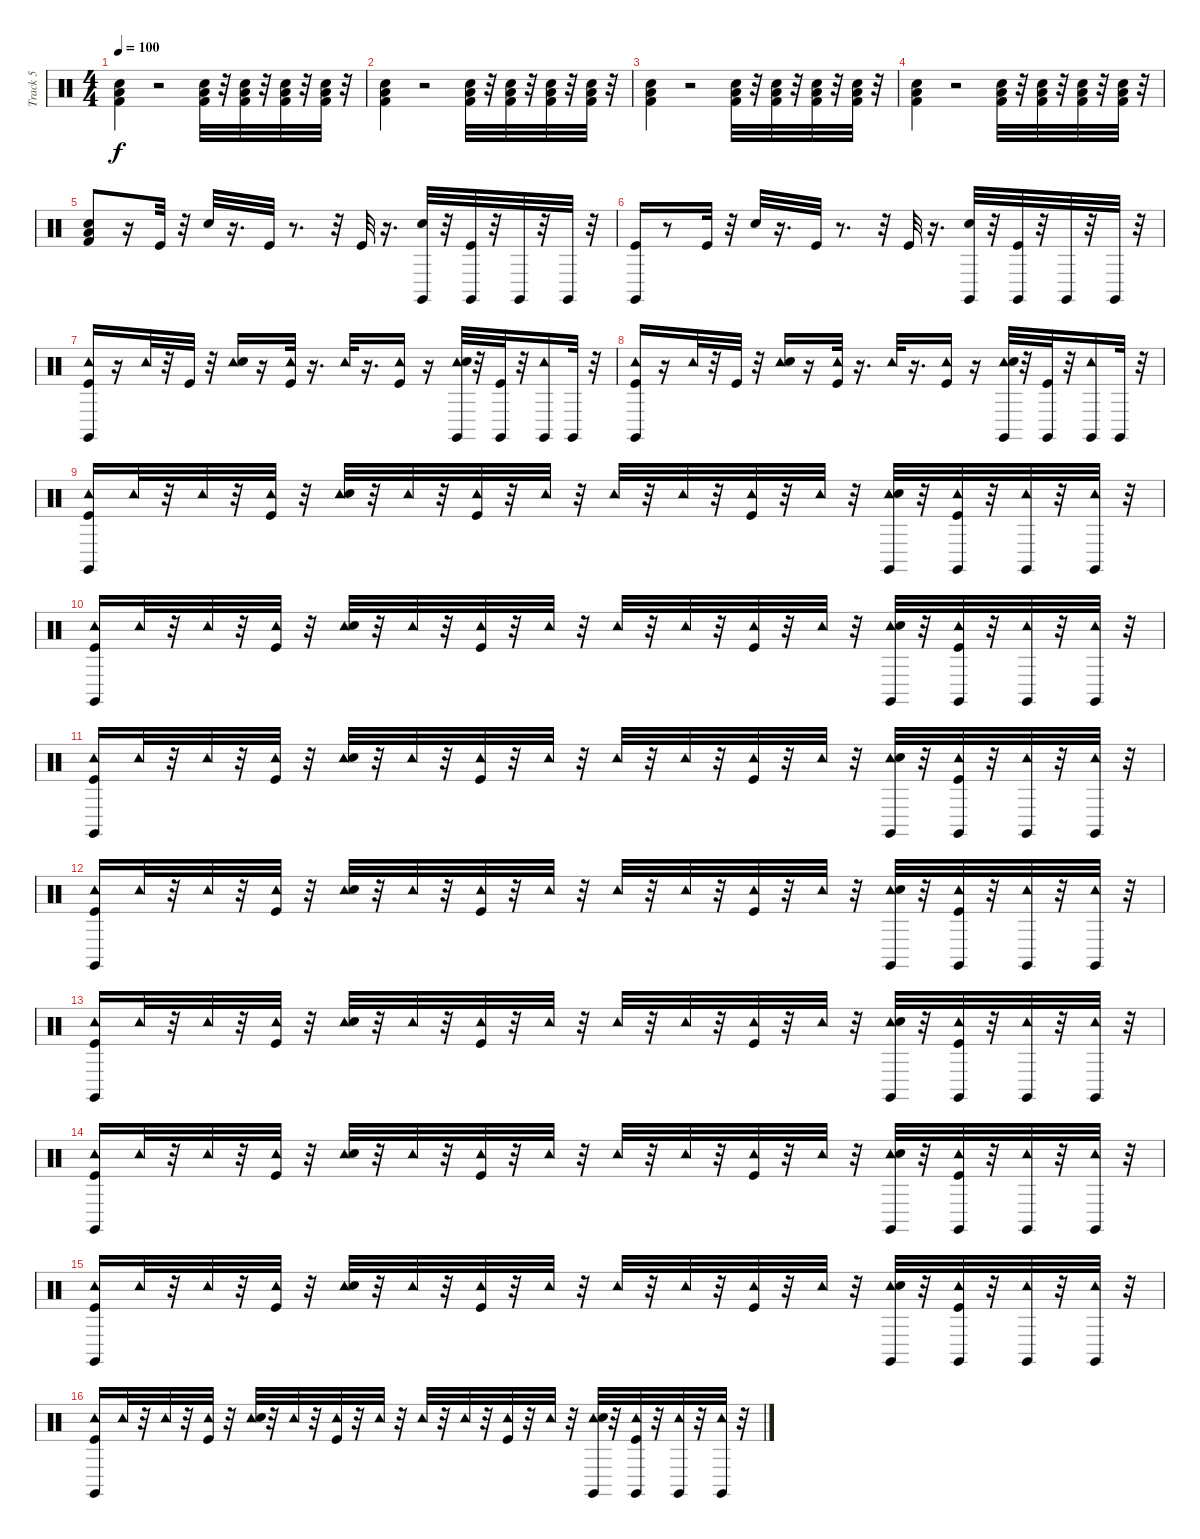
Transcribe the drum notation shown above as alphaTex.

\track ("Track 5" "Track 5") {instrument percussion}
\staff {score}
\articulation defaults
\ts (4 4)
\tempo 100
\clef neutral
\ks c
("Snare (hit) 2" "Kick (hit) 2" "Low Floor Tom (hit)").4{dy f} r.2 ("Snare (hit) 2" "Kick (hit) 2" "Low Floor Tom (hit)").32 r.32 ("Snare (hit) 2" "Kick (hit) 2" "Low Floor Tom (hit)").32 r.32 ("Snare (hit) 2" "Kick (hit) 2" "Low Floor Tom (hit)").32 r.32 ("Snare (hit) 2" "Kick (hit) 2" "Low Floor Tom (hit)").32 r.32 |
("Low Floor Tom (hit)" "Snare (hit) 2" "Kick (hit) 2").4 r.2 ("Snare (hit) 2" "Kick (hit) 2" "Low Floor Tom (hit)").32 r.32 ("Snare (hit) 2" "Kick (hit) 2" "Low Floor Tom (hit)").32 r.32 ("Snare (hit) 2" "Kick (hit) 2" "Low Floor Tom (hit)").32 r.32 ("Snare (hit) 2" "Kick (hit) 2" "Low Floor Tom (hit)").32 r.32 |
("Kick (hit) 2" "Low Floor Tom (hit)" "Snare (hit) 2").4 r.2 ("Snare (hit) 2" "Kick (hit) 2" "Low Floor Tom (hit)").32 r.32 ("Snare (hit) 2" "Kick (hit) 2" "Low Floor Tom (hit)").32 r.32 ("Snare (hit) 2" "Kick (hit) 2" "Low Floor Tom (hit)").32 r.32 ("Snare (hit) 2" "Kick (hit) 2" "Low Floor Tom (hit)").32 r.32 |
("Low Floor Tom (hit)" "Snare (hit) 2" "Kick (hit) 2").4 r.2 ("Low Floor Tom (hit)" "Snare (hit) 2" "Kick (hit) 2").32 r.32 ("Snare (hit) 2" "Kick (hit) 2" "Low Floor Tom (hit)").32 r.32 ("Snare (hit) 2" "Kick (hit) 2" "Low Floor Tom (hit)").32 r.32 ("Snare (hit) 2" "Kick (hit) 2" "Low Floor Tom (hit)").32 r.32 |
("Low Floor Tom (hit)" "Snare (hit) 2" "Kick (hit) 2").8 r.16 "Kick (hit)".32 r.32 "Snare (hit) 2".32 r.16{d} "Kick (hit)".32 r.8{d} r.32 "Kick (hit)".32 r.16{d} ("Claves (hit)" "Snare (hit) 2").32 r.32 ("Kick (hit)" "Claves (hit)").32 r.32 "Claves (hit)".32 r.32 "Claves (hit)".32 r.32 |
("Claves (hit)" "Kick (hit)").16 r.8 "Kick (hit)".32 r.32 "Snare (hit) 2".32 r.16{d} "Kick (hit)".32 r.8{d} r.32 "Kick (hit)".32 r.16{d} ("Claves (hit)" "Snare (hit) 2").32 r.32 ("Claves (hit)" "Kick (hit)").32 r.32 "Claves (hit)".32 r.32 "Claves (hit)".32 r.32 |
("Tambourine (hit)" "Claves (hit)" "Kick (hit)").16 r.16 "Tambourine (hit)".32 r.32 "Kick (hit)".32 r.32 ("Tambourine (hit)" "Snare (hit) 2").16 r.16 ("Tambourine (hit)" "Kick (hit)").32 r.16{d} "Tambourine (hit)".32 r.16{d} ("Tambourine (hit)" "Kick (hit)").16 r.16 ("Tambourine (hit)" "Claves (hit)" "Snare (hit) 2").32 r.32 ("Claves (hit)" "Kick (hit)").32 r.32 ("Tambourine (hit)" "Claves (hit)").16 "Claves (hit)".32 r.32 |
("Tambourine (hit)" "Claves (hit)" "Kick (hit)").16 r.16 "Tambourine (hit)".32 r.32 "Kick (hit)".32 r.32 ("Tambourine (hit)" "Snare (hit) 2").16 r.16 ("Tambourine (hit)" "Kick (hit)").32 r.16{d} "Tambourine (hit)".32 r.16{d} ("Tambourine (hit)" "Kick (hit)").16 r.16 ("Tambourine (hit)" "Claves (hit)" "Snare (hit) 2").32 r.32 ("Claves (hit)" "Kick (hit)").32 r.32 ("Tambourine (hit)" "Claves (hit)").16 "Claves (hit)".32 r.32 |
("Tambourine (hit)" "Claves (hit)" "Kick (hit)").16 "Tambourine (hit)".32 r.32 "Tambourine (hit)".32 r.32 ("Tambourine (hit)" "Kick (hit)").32 r.32 ("Tambourine (hit)" "Snare (hit) 2").32 r.32 "Tambourine (hit)".32 r.32 ("Tambourine (hit)" "Kick (hit)").32 r.32 "Tambourine (hit)".32 r.32 "Tambourine (hit)".32 r.32 "Tambourine (hit)".32 r.32 ("Tambourine (hit)" "Kick (hit)").32 r.32 "Tambourine (hit)".32 r.32 ("Tambourine (hit)" "Claves (hit)" "Snare (hit) 2").32 r.32 ("Tambourine (hit)" "Claves (hit)" "Kick (hit)").32 r.32 ("Tambourine (hit)" "Claves (hit)").32 r.32 ("Tambourine (hit)" "Claves (hit)").32 r.32 |
("Tambourine (hit)" "Claves (hit)" "Kick (hit)").16 "Tambourine (hit)".32 r.32 "Tambourine (hit)".32 r.32 ("Tambourine (hit)" "Kick (hit)").32 r.32 ("Tambourine (hit)" "Snare (hit) 2").32 r.32 "Tambourine (hit)".32 r.32 ("Tambourine (hit)" "Kick (hit)").32 r.32 "Tambourine (hit)".32 r.32 "Tambourine (hit)".32 r.32 "Tambourine (hit)".32 r.32 ("Tambourine (hit)" "Kick (hit)").32 r.32 "Tambourine (hit)".32 r.32 ("Tambourine (hit)" "Claves (hit)" "Snare (hit) 2").32 r.32 ("Tambourine (hit)" "Claves (hit)" "Kick (hit)").32 r.32 ("Tambourine (hit)" "Claves (hit)").32 r.32 ("Tambourine (hit)" "Claves (hit)").32 r.32 |
("Tambourine (hit)" "Claves (hit)" "Kick (hit)").16 "Tambourine (hit)".32 r.32 "Tambourine (hit)".32 r.32 ("Tambourine (hit)" "Kick (hit)").32 r.32 ("Tambourine (hit)" "Snare (hit) 2").32 r.32 "Tambourine (hit)".32 r.32 ("Tambourine (hit)" "Kick (hit)").32 r.32 "Tambourine (hit)".32 r.32 "Tambourine (hit)".32 r.32 "Tambourine (hit)".32 r.32 ("Tambourine (hit)" "Kick (hit)").32 r.32 "Tambourine (hit)".32 r.32 ("Tambourine (hit)" "Claves (hit)" "Snare (hit) 2").32 r.32 ("Tambourine (hit)" "Claves (hit)" "Kick (hit)").32 r.32 ("Tambourine (hit)" "Claves (hit)").32 r.32 ("Tambourine (hit)" "Claves (hit)").32 r.32 |
("Tambourine (hit)" "Claves (hit)" "Kick (hit)").16 "Tambourine (hit)".32 r.32 "Tambourine (hit)".32 r.32 ("Tambourine (hit)" "Kick (hit)").32 r.32 ("Tambourine (hit)" "Snare (hit) 2").32 r.32 "Tambourine (hit)".32 r.32 ("Tambourine (hit)" "Kick (hit)").32 r.32 "Tambourine (hit)".32 r.32 "Tambourine (hit)".32 r.32 "Tambourine (hit)".32 r.32 ("Tambourine (hit)" "Kick (hit)").32 r.32 "Tambourine (hit)".32 r.32 ("Tambourine (hit)" "Claves (hit)" "Snare (hit) 2").32 r.32 ("Tambourine (hit)" "Claves (hit)" "Kick (hit)").32 r.32 ("Tambourine (hit)" "Claves (hit)").32 r.32 ("Tambourine (hit)" "Claves (hit)").32 r.32 |
("Tambourine (hit)" "Claves (hit)" "Kick (hit)").16 "Tambourine (hit)".32 r.32 "Tambourine (hit)".32 r.32 ("Tambourine (hit)" "Kick (hit)").32 r.32 ("Tambourine (hit)" "Snare (hit) 2").32 r.32 "Tambourine (hit)".32 r.32 ("Tambourine (hit)" "Kick (hit)").32 r.32 "Tambourine (hit)".32 r.32 "Tambourine (hit)".32 r.32 "Tambourine (hit)".32 r.32 ("Tambourine (hit)" "Kick (hit)").32 r.32 "Tambourine (hit)".32 r.32 ("Tambourine (hit)" "Claves (hit)" "Snare (hit) 2").32 r.32 ("Tambourine (hit)" "Claves (hit)" "Kick (hit)").32 r.32 ("Tambourine (hit)" "Claves (hit)").32 r.32 ("Tambourine (hit)" "Claves (hit)").32 r.32 |
("Tambourine (hit)" "Claves (hit)" "Kick (hit)").16 "Tambourine (hit)".32 r.32 "Tambourine (hit)".32 r.32 ("Tambourine (hit)" "Kick (hit)").32 r.32 ("Tambourine (hit)" "Snare (hit) 2").32 r.32 "Tambourine (hit)".32 r.32 ("Tambourine (hit)" "Kick (hit)").32 r.32 "Tambourine (hit)".32 r.32 "Tambourine (hit)".32 r.32 "Tambourine (hit)".32 r.32 ("Tambourine (hit)" "Kick (hit)").32 r.32 "Tambourine (hit)".32 r.32 ("Tambourine (hit)" "Claves (hit)" "Snare (hit) 2").32 r.32 ("Tambourine (hit)" "Claves (hit)" "Kick (hit)").32 r.32 ("Tambourine (hit)" "Claves (hit)").32 r.32 ("Tambourine (hit)" "Claves (hit)").32 r.32 |
("Tambourine (hit)" "Claves (hit)" "Kick (hit)").16 "Tambourine (hit)".32 r.32 "Tambourine (hit)".32 r.32 ("Tambourine (hit)" "Kick (hit)").32 r.32 ("Tambourine (hit)" "Snare (hit) 2").32 r.32 "Tambourine (hit)".32 r.32 ("Tambourine (hit)" "Kick (hit)").32 r.32 "Tambourine (hit)".32 r.32 "Tambourine (hit)".32 r.32 "Tambourine (hit)".32 r.32 ("Tambourine (hit)" "Kick (hit)").32 r.32 "Tambourine (hit)".32 r.32 ("Tambourine (hit)" "Claves (hit)" "Snare (hit) 2").32 r.32 ("Tambourine (hit)" "Claves (hit)" "Kick (hit)").32 r.32 ("Tambourine (hit)" "Claves (hit)").32 r.32 ("Tambourine (hit)" "Claves (hit)").32 r.32 |
("Tambourine (hit)" "Claves (hit)" "Kick (hit)").16 "Tambourine (hit)".32 r.32 "Tambourine (hit)".32 r.32 ("Tambourine (hit)" "Kick (hit)").32 r.32 ("Tambourine (hit)" "Snare (hit) 2").32 r.32 "Tambourine (hit)".32 r.32 ("Tambourine (hit)" "Kick (hit)").32 r.32 "Tambourine (hit)".32 r.32 "Tambourine (hit)".32 r.32 "Tambourine (hit)".32 r.32 ("Tambourine (hit)" "Kick (hit)").32 r.32 "Tambourine (hit)".32 r.32 ("Tambourine (hit)" "Claves (hit)" "Snare (hit) 2").32 r.32 ("Tambourine (hit)" "Claves (hit)" "Kick (hit)").32 r.32 ("Tambourine (hit)" "Claves (hit)").32 r.32 ("Tambourine (hit)" "Claves (hit)").32 r.32
